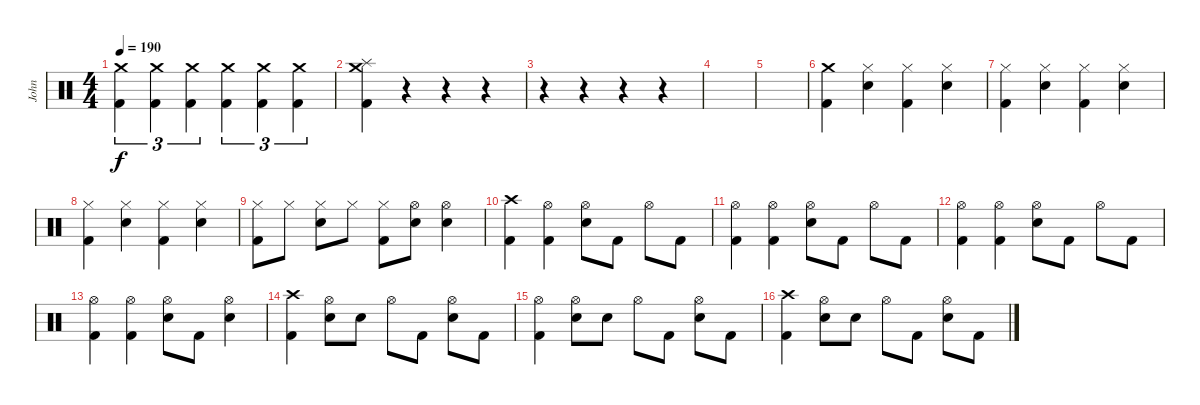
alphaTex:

\track ("John" "John") {instrument percussion}
\staff {score}
\articulation defaults
\ts (4 4)
\tempo 190
\clef neutral
\ks c
("Kick (hit) 2" "Crash medium (hit)").4{tu (3 2) dy f} ("Kick (hit) 2" "Crash medium (hit)").4{tu (3 2)} ("Kick (hit) 2" "Crash medium (hit)").4{tu (3 2)} ("Kick (hit) 2" "Crash medium (hit)").4{tu (3 2)} ("Kick (hit) 2" "Crash medium (hit)").4{tu (3 2)} ("Kick (hit) 2" "Crash medium (hit)").4{tu (3 2)} |
("Kick (hit) 2" "Crash medium (hit)" "Splash (hit)").4 r.4 r.4 r.4 |
r.4 r.4 r.4 r.4 |
|
|
("Kick (hit) 2" "Crash medium (hit)").4 ("Snare (hit) 2" "Hi-Hat (closed)").4 ("Kick (hit) 2" "Hi-Hat (closed)").4 ("Snare (hit) 2" "Hi-Hat (closed)").4 |
("Kick (hit) 2" "Hi-Hat (closed)").4 ("Snare (hit) 2" "Hi-Hat (closed)").4 ("Kick (hit) 2" "Hi-Hat (closed)").4 ("Snare (hit) 2" "Hi-Hat (closed)").4 |
("Kick (hit) 2" "Hi-Hat (closed)").4 ("Snare (hit) 2" "Hi-Hat (closed)").4 ("Kick (hit) 2" "Hi-Hat (closed)").4 ("Snare (hit) 2" "Hi-Hat (closed)").4 |
("Kick (hit) 2" "Hi-Hat (closed)").8 "Hi-Hat (closed)".8 ("Snare (hit) 2" "Hi-Hat (closed)").8 "Hi-Hat (closed)".8 ("Kick (hit) 2" "Hi-Hat (closed)").8 ("Snare (hit) 2" "Hi-Hat (open)").8 ("Snare (hit) 2" "Hi-Hat (open)").4 |
("Kick (hit) 2" "Crash high (hit)").4 ("Kick (hit) 2" "Hi-Hat (open)").4 ("Snare (hit) 2" "Hi-Hat (open)").8 "Kick (hit) 2".8 "Hi-Hat (open)".8 "Kick (hit) 2".8 |
("Kick (hit) 2" "Hi-Hat (open)").4 ("Kick (hit) 2" "Hi-Hat (open)").4 ("Snare (hit) 2" "Hi-Hat (open)").8 "Kick (hit) 2".8 "Hi-Hat (open)".8 "Kick (hit) 2".8 |
("Kick (hit) 2" "Hi-Hat (open)").4 ("Kick (hit) 2" "Hi-Hat (open)").4 ("Snare (hit) 2" "Hi-Hat (open)").8 "Kick (hit) 2".8 "Hi-Hat (open)".8 "Kick (hit) 2".8 |
("Kick (hit) 2" "Hi-Hat (open)").4 ("Kick (hit) 2" "Hi-Hat (open)").4 ("Snare (hit) 2" "Hi-Hat (open)").8 "Kick (hit) 2".8 ("Snare (hit) 2" "Hi-Hat (open)").4 |
("Kick (hit) 2" "Crash high (hit)").4 ("Snare (hit) 2" "Hi-Hat (open)").8 "Snare (hit) 2".8 "Hi-Hat (open)".8 "Kick (hit) 2".8 ("Snare (hit) 2" "Hi-Hat (open)").8 "Kick (hit) 2".8 |
("Kick (hit) 2" "Hi-Hat (open)").4 ("Snare (hit) 2" "Hi-Hat (open)").8 "Snare (hit) 2".8 "Hi-Hat (open)".8 "Kick (hit) 2".8 ("Snare (hit) 2" "Hi-Hat (open)").8 "Kick (hit) 2".8 |
("Kick (hit) 2" "Crash high (hit)").4 ("Snare (hit) 2" "Hi-Hat (open)").8 "Snare (hit) 2".8 "Hi-Hat (open)".8 "Kick (hit) 2".8 ("Snare (hit) 2" "Hi-Hat (open)").8 "Kick (hit) 2".8
